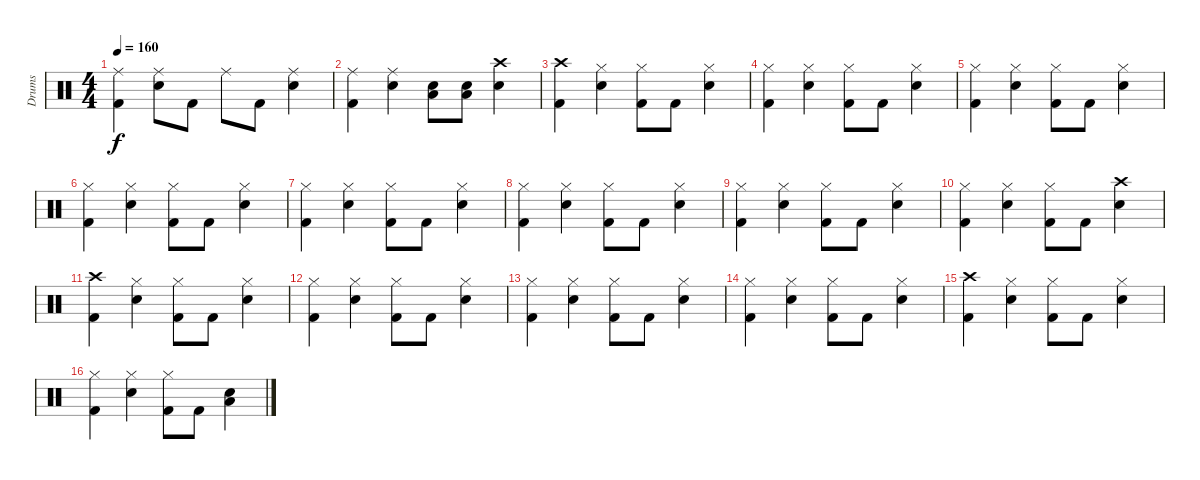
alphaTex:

\track ("Drums" "Drums") {instrument percussion}
\staff {score}
\articulation defaults
\ts (4 4)
\tempo 160
\clef neutral
\ks c
("Ride (middle)" "Kick (hit) 2").4{dy f} ("Ride (middle)" "Snare (hit) 2").8 "Kick (hit) 2".8 "Ride (middle)".8 "Kick (hit) 2".8 ("Ride (middle)" "Snare (hit) 2").4 |
("Ride (middle)" "Kick (hit) 2").4 ("Ride (middle)" "Snare (hit) 2").4 ("Snare (hit) 2" "Low Tom (hit)").8 ("Snare (hit) 2" "Low Tom (hit)").8 ("Crash high (hit)" "Snare (hit) 2").4 |
("Crash high (hit)" "Kick (hit) 2").4 ("Hi-Hat (closed)" "Snare (hit) 2").4 ("Hi-Hat (closed)" "Kick (hit) 2").8 "Kick (hit) 2".8 ("Hi-Hat (closed)" "Snare (hit) 2").4 |
("Hi-Hat (closed)" "Kick (hit) 2").4 ("Hi-Hat (closed)" "Snare (hit) 2").4 ("Hi-Hat (closed)" "Kick (hit) 2").8 "Kick (hit) 2".8 ("Hi-Hat (closed)" "Snare (hit) 2").4 |
("Hi-Hat (closed)" "Kick (hit) 2").4 ("Hi-Hat (closed)" "Snare (hit) 2").4 ("Hi-Hat (closed)" "Kick (hit) 2").8 "Kick (hit) 2".8 ("Hi-Hat (closed)" "Snare (hit) 2").4 |
("Hi-Hat (closed)" "Kick (hit) 2").4 ("Hi-Hat (closed)" "Snare (hit) 2").4 ("Hi-Hat (closed)" "Kick (hit) 2").8 "Kick (hit) 2".8 ("Hi-Hat (closed)" "Snare (hit) 2").4 |
("Hi-Hat (closed)" "Kick (hit) 2").4 ("Hi-Hat (closed)" "Snare (hit) 2").4 ("Hi-Hat (closed)" "Kick (hit) 2").8 "Kick (hit) 2".8 ("Hi-Hat (closed)" "Snare (hit) 2").4 |
("Hi-Hat (closed)" "Kick (hit) 2").4 ("Hi-Hat (closed)" "Snare (hit) 2").4 ("Hi-Hat (closed)" "Kick (hit) 2").8 "Kick (hit) 2".8 ("Hi-Hat (closed)" "Snare (hit) 2").4 |
("Hi-Hat (closed)" "Kick (hit) 2").4 ("Hi-Hat (closed)" "Snare (hit) 2").4 ("Hi-Hat (closed)" "Kick (hit) 2").8 "Kick (hit) 2".8 ("Hi-Hat (closed)" "Snare (hit) 2").4 |
("Hi-Hat (closed)" "Kick (hit) 2").4 ("Hi-Hat (closed)" "Snare (hit) 2").4 ("Hi-Hat (closed)" "Kick (hit) 2").8 "Kick (hit) 2".8 ("Crash high (hit)" "Snare (hit) 2").4 |
("Crash high (hit)" "Kick (hit) 2").4 ("Hi-Hat (closed)" "Snare (hit) 2").4 ("Hi-Hat (closed)" "Kick (hit) 2").8 "Kick (hit) 2".8 ("Hi-Hat (closed)" "Snare (hit) 2").4 |
("Hi-Hat (closed)" "Kick (hit) 2").4 ("Hi-Hat (closed)" "Snare (hit) 2").4 ("Hi-Hat (closed)" "Kick (hit) 2").8 "Kick (hit) 2".8 ("Hi-Hat (closed)" "Snare (hit) 2").4 |
("Hi-Hat (closed)" "Kick (hit) 2").4 ("Hi-Hat (closed)" "Snare (hit) 2").4 ("Hi-Hat (closed)" "Kick (hit) 2").8 "Kick (hit) 2".8 ("Hi-Hat (closed)" "Snare (hit) 2").4 |
("Hi-Hat (closed)" "Kick (hit) 2").4 ("Hi-Hat (closed)" "Snare (hit) 2").4 ("Hi-Hat (closed)" "Kick (hit) 2").8 "Kick (hit) 2".8 ("Hi-Hat (closed)" "Snare (hit) 2").4 |
("Crash high (hit)" "Kick (hit) 2").4 ("Hi-Hat (closed)" "Snare (hit) 2").4 ("Hi-Hat (closed)" "Kick (hit) 2").8 "Kick (hit) 2".8 ("Hi-Hat (closed)" "Snare (hit) 2").4 |
("Hi-Hat (closed)" "Kick (hit) 2").4 ("Hi-Hat (closed)" "Snare (hit) 2").4 ("Hi-Hat (closed)" "Kick (hit) 2").8 "Kick (hit) 2".8 ("Snare (hit) 2" "Low Tom (hit)").4
